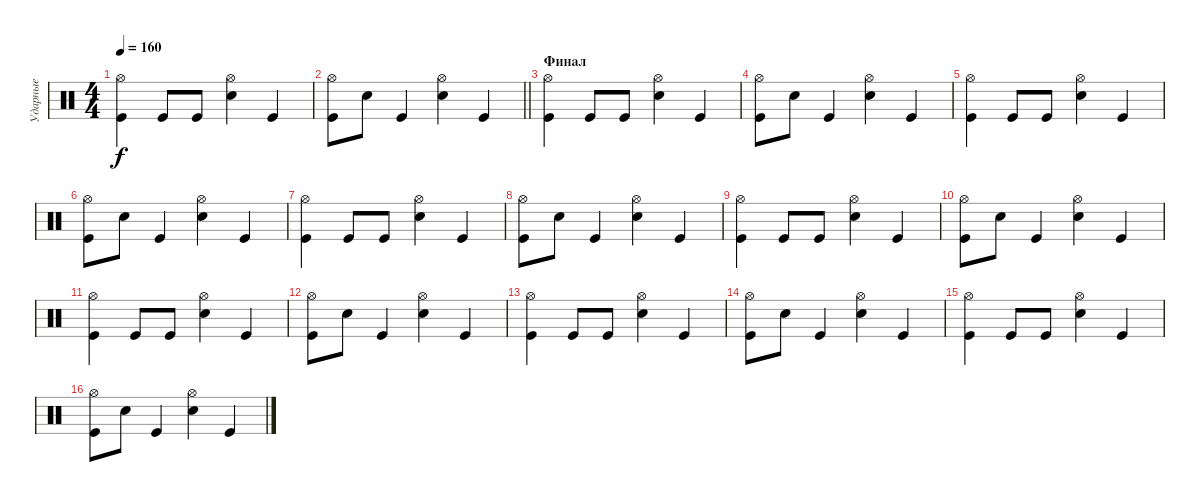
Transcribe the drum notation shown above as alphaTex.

\track ("Ударные" "Ударные") {instrument percussion}
\staff {score}
\articulation defaults
\ts (4 4)
\tempo 160
\clef neutral
\ks c
("Kick (hit)" "Hi-Hat (open)").4{dy f} "Kick (hit)".8 "Kick (hit)".8 ("Electric Snare (hit)" "Hi-Hat (open)").4 "Kick (hit)".4 |
\barLineRight lightlight
("Kick (hit)" "Hi-Hat (open)").8 "Electric Snare (hit)".8 "Kick (hit)".4 ("Electric Snare (hit)" "Hi-Hat (open)").4 "Kick (hit)".4 |
\section ("" "Финал")
("Kick (hit)" "Hi-Hat (open)").4 "Kick (hit)".8 "Kick (hit)".8 ("Electric Snare (hit)" "Hi-Hat (open)").4 "Kick (hit)".4 |
("Kick (hit)" "Hi-Hat (open)").8 "Electric Snare (hit)".8 "Kick (hit)".4 ("Electric Snare (hit)" "Hi-Hat (open)").4 "Kick (hit)".4 |
("Kick (hit)" "Hi-Hat (open)").4 "Kick (hit)".8 "Kick (hit)".8 ("Electric Snare (hit)" "Hi-Hat (open)").4 "Kick (hit)".4 |
("Kick (hit)" "Hi-Hat (open)").8 "Electric Snare (hit)".8 "Kick (hit)".4 ("Electric Snare (hit)" "Hi-Hat (open)").4 "Kick (hit)".4 |
("Kick (hit)" "Hi-Hat (open)").4 "Kick (hit)".8 "Kick (hit)".8 ("Electric Snare (hit)" "Hi-Hat (open)").4 "Kick (hit)".4 |
("Kick (hit)" "Hi-Hat (open)").8 "Electric Snare (hit)".8 "Kick (hit)".4 ("Electric Snare (hit)" "Hi-Hat (open)").4 "Kick (hit)".4 |
("Kick (hit)" "Hi-Hat (open)").4 "Kick (hit)".8 "Kick (hit)".8 ("Electric Snare (hit)" "Hi-Hat (open)").4 "Kick (hit)".4 |
("Kick (hit)" "Hi-Hat (open)").8 "Electric Snare (hit)".8 "Kick (hit)".4 ("Electric Snare (hit)" "Hi-Hat (open)").4 "Kick (hit)".4 |
("Kick (hit)" "Hi-Hat (open)").4 "Kick (hit)".8 "Kick (hit)".8 ("Electric Snare (hit)" "Hi-Hat (open)").4 "Kick (hit)".4 |
("Kick (hit)" "Hi-Hat (open)").8 "Electric Snare (hit)".8 "Kick (hit)".4 ("Electric Snare (hit)" "Hi-Hat (open)").4 "Kick (hit)".4 |
("Kick (hit)" "Hi-Hat (open)").4 "Kick (hit)".8 "Kick (hit)".8 ("Electric Snare (hit)" "Hi-Hat (open)").4 "Kick (hit)".4 |
("Kick (hit)" "Hi-Hat (open)").8 "Electric Snare (hit)".8 "Kick (hit)".4 ("Electric Snare (hit)" "Hi-Hat (open)").4 "Kick (hit)".4 |
("Kick (hit)" "Hi-Hat (open)").4 "Kick (hit)".8 "Kick (hit)".8 ("Electric Snare (hit)" "Hi-Hat (open)").4 "Kick (hit)".4 |
("Kick (hit)" "Hi-Hat (open)").8 "Electric Snare (hit)".8 "Kick (hit)".4 ("Electric Snare (hit)" "Hi-Hat (open)").4 "Kick (hit)".4
